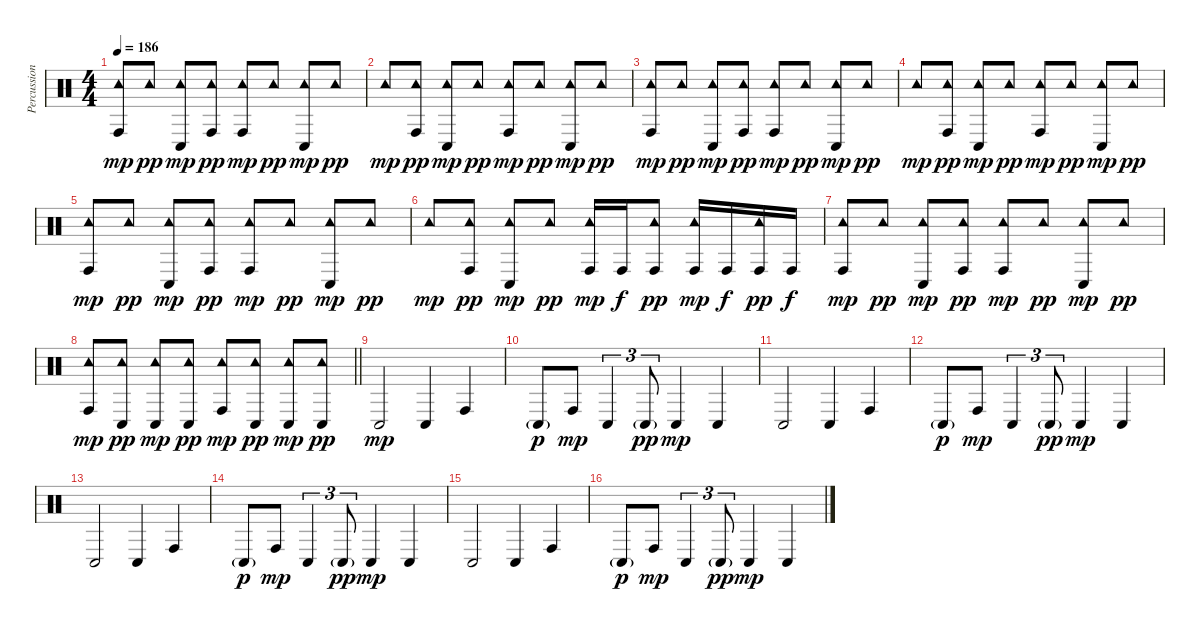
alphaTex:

\track ("Percussion" "Percussion") {instrument percussion}
\staff {score}
\articulation defaults
\ts (4 4)
\tempo 186
\clef neutral
\ks c
("Tambourine (hit)" "Conga high (hit)").8{dy mp} "Tambourine (hit)".8{dy pp} ("Tambourine (hit)" "Conga low (hit)").8{dy mp} ("Tambourine (hit)" "Conga high (hit)").8{dy pp} ("Tambourine (hit)" "Conga high (hit)").8{dy mp} "Tambourine (hit)".8{dy pp} ("Tambourine (hit)" "Conga low (hit)").8{dy mp} "Tambourine (hit)".8{dy pp} |
"Tambourine (hit)".8{dy mp} ("Tambourine (hit)" "Conga high (hit)").8{dy pp} ("Tambourine (hit)" "Conga low (hit)").8{dy mp} "Tambourine (hit)".8{dy pp} ("Tambourine (hit)" "Conga high (hit)").8{dy mp} "Tambourine (hit)".8{dy pp} ("Tambourine (hit)" "Conga low (hit)").8{dy mp} "Tambourine (hit)".8{dy pp} |
("Tambourine (hit)" "Conga high (hit)").8{dy mp} "Tambourine (hit)".8{dy pp} ("Tambourine (hit)" "Conga low (hit)").8{dy mp} ("Tambourine (hit)" "Conga high (hit)").8{dy pp} ("Tambourine (hit)" "Conga high (hit)").8{dy mp} "Tambourine (hit)".8{dy pp} ("Tambourine (hit)" "Conga low (hit)").8{dy mp} "Tambourine (hit)".8{dy pp} |
"Tambourine (hit)".8{dy mp} ("Tambourine (hit)" "Conga high (hit)").8{dy pp} ("Tambourine (hit)" "Conga low (hit)").8{dy mp} "Tambourine (hit)".8{dy pp} ("Tambourine (hit)" "Conga high (hit)").8{dy mp} "Tambourine (hit)".8{dy pp} ("Tambourine (hit)" "Conga low (hit)").8{dy mp} "Tambourine (hit)".8{dy pp} |
("Tambourine (hit)" "Conga high (hit)").8{dy mp} "Tambourine (hit)".8{dy pp} ("Tambourine (hit)" "Conga low (hit)").8{dy mp} ("Tambourine (hit)" "Conga high (hit)").8{dy pp} ("Tambourine (hit)" "Conga high (hit)").8{dy mp} "Tambourine (hit)".8{dy pp} ("Tambourine (hit)" "Conga low (hit)").8{dy mp} "Tambourine (hit)".8{dy pp} |
"Tambourine (hit)".8{dy mp} ("Tambourine (hit)" "Conga high (hit)").8{dy pp} ("Tambourine (hit)" "Conga low (hit)").8{dy mp} "Tambourine (hit)".8{dy pp} ("Tambourine (hit)" "Conga high (hit)").16{dy mp} "Conga high (hit)".16{dy f} ("Tambourine (hit)" "Conga high (hit)").8{dy pp} ("Tambourine (hit)" "Conga high (hit)").16{dy mp} "Conga high (hit)".16{dy f} ("Tambourine (hit)" "Conga high (hit)").16{dy pp} "Conga high (hit)".16{dy f} |
("Tambourine (hit)" "Conga high (hit)").8{dy mp} "Tambourine (hit)".8{dy pp} ("Tambourine (hit)" "Conga low (hit)").8{dy mp} ("Tambourine (hit)" "Conga high (hit)").8{dy pp} ("Tambourine (hit)" "Conga high (hit)").8{dy mp} "Tambourine (hit)".8{dy pp} ("Tambourine (hit)" "Conga low (hit)").8{dy mp} "Tambourine (hit)".8{dy pp} |
\barLineRight lightlight
("Tambourine (hit)" "Conga high (hit)").8{dy mp} ("Tambourine (hit)" "Conga low (hit)").8{dy pp} ("Tambourine (hit)" "Conga low (hit)").8{dy mp} ("Tambourine (hit)" "Conga low (hit)").8{dy pp} ("Tambourine (hit)" "Conga high (hit)").8{dy mp} ("Tambourine (hit)" "Conga low (hit)").8{dy pp} ("Tambourine (hit)" "Conga low (hit)").8{dy mp} ("Tambourine (hit)" "Conga low (hit)").8{dy pp} |
\section ("" "")
"Conga low (hit)".2{dy mp} "Conga low (hit)".4 "Conga high (hit)".4 |
"Conga low (hit)"{g}.8{dy p} "Conga high (hit)".8{dy mp} "Conga low (hit)".4{tu (3 2)} "Conga low (hit)"{g}.8{tu (3 2) dy pp} "Conga low (hit)".4{dy mp} "Conga low (hit)".4 |
"Conga low (hit)".2 "Conga low (hit)".4 "Conga high (hit)".4 |
"Conga low (hit)"{g}.8{dy p} "Conga high (hit)".8{dy mp} "Conga low (hit)".4{tu (3 2)} "Conga low (hit)"{g}.8{tu (3 2) dy pp} "Conga low (hit)".4{dy mp} "Conga low (hit)".4 |
"Conga low (hit)".2 "Conga low (hit)".4 "Conga high (hit)".4 |
"Conga low (hit)"{g}.8{dy p} "Conga high (hit)".8{dy mp} "Conga low (hit)".4{tu (3 2)} "Conga low (hit)"{g}.8{tu (3 2) dy pp} "Conga low (hit)".4{dy mp} "Conga low (hit)".4 |
"Conga low (hit)".2 "Conga low (hit)".4 "Conga high (hit)".4 |
"Conga low (hit)"{g}.8{dy p} "Conga high (hit)".8{dy mp} "Conga low (hit)".4{tu (3 2)} "Conga low (hit)"{g}.8{tu (3 2) dy pp} "Conga low (hit)".4{dy mp} "Conga low (hit)".4
